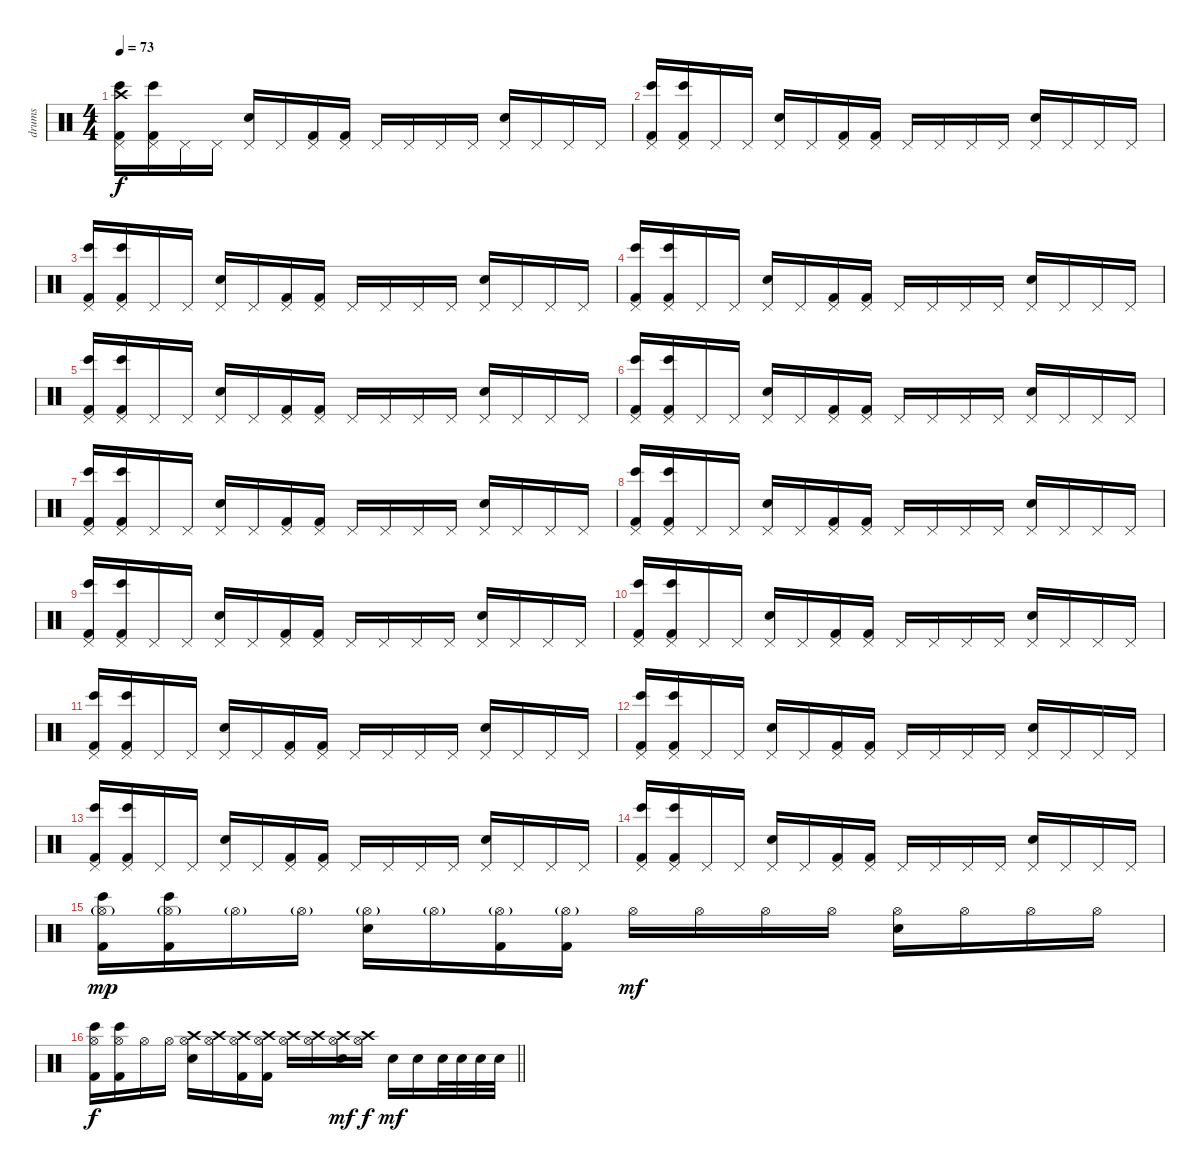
\track ("drums" "drums") {instrument percussion}
\staff {score}
\articulation defaults
\ts (4 4)
\tempo 73
\clef neutral
\ks c
("Kick (hit) 2" "Bongo High (hit)" "Pedal Hi-Hat (hit)" "Crash high (hit)").16{dy f} ("Kick (hit) 2" "Bongo High (hit)" "Pedal Hi-Hat (hit)").16 "Pedal Hi-Hat (hit)".16 "Pedal Hi-Hat (hit)".16 ("Electric Snare (hit)" "Pedal Hi-Hat (hit)").16 "Pedal Hi-Hat (hit)".16 ("Kick (hit) 2" "Pedal Hi-Hat (hit)").16 ("Kick (hit) 2" "Pedal Hi-Hat (hit)").16 "Pedal Hi-Hat (hit)".16 "Pedal Hi-Hat (hit)".16 "Pedal Hi-Hat (hit)".16 "Pedal Hi-Hat (hit)".16 ("Electric Snare (hit)" "Pedal Hi-Hat (hit)").16 "Pedal Hi-Hat (hit)".16 "Pedal Hi-Hat (hit)".16 "Pedal Hi-Hat (hit)".16 |
("Kick (hit) 2" "Bongo High (hit)" "Pedal Hi-Hat (hit)").16 ("Kick (hit) 2" "Bongo High (hit)" "Pedal Hi-Hat (hit)").16 "Pedal Hi-Hat (hit)".16 "Pedal Hi-Hat (hit)".16 ("Electric Snare (hit)" "Pedal Hi-Hat (hit)").16 "Pedal Hi-Hat (hit)".16 ("Kick (hit) 2" "Pedal Hi-Hat (hit)").16 ("Kick (hit) 2" "Pedal Hi-Hat (hit)").16 "Pedal Hi-Hat (hit)".16 "Pedal Hi-Hat (hit)".16 "Pedal Hi-Hat (hit)".16 "Pedal Hi-Hat (hit)".16 ("Electric Snare (hit)" "Pedal Hi-Hat (hit)").16 "Pedal Hi-Hat (hit)".16 "Pedal Hi-Hat (hit)".16 "Pedal Hi-Hat (hit)".16 |
("Kick (hit) 2" "Bongo High (hit)" "Pedal Hi-Hat (hit)").16 ("Kick (hit) 2" "Bongo High (hit)" "Pedal Hi-Hat (hit)").16 "Pedal Hi-Hat (hit)".16 "Pedal Hi-Hat (hit)".16 ("Electric Snare (hit)" "Pedal Hi-Hat (hit)").16 "Pedal Hi-Hat (hit)".16 ("Kick (hit) 2" "Pedal Hi-Hat (hit)").16 ("Kick (hit) 2" "Pedal Hi-Hat (hit)").16 "Pedal Hi-Hat (hit)".16 "Pedal Hi-Hat (hit)".16 "Pedal Hi-Hat (hit)".16 "Pedal Hi-Hat (hit)".16 ("Electric Snare (hit)" "Pedal Hi-Hat (hit)").16 "Pedal Hi-Hat (hit)".16 "Pedal Hi-Hat (hit)".16 "Pedal Hi-Hat (hit)".16 |
("Kick (hit) 2" "Bongo High (hit)" "Pedal Hi-Hat (hit)").16 ("Kick (hit) 2" "Bongo High (hit)" "Pedal Hi-Hat (hit)").16 "Pedal Hi-Hat (hit)".16 "Pedal Hi-Hat (hit)".16 ("Electric Snare (hit)" "Pedal Hi-Hat (hit)").16 "Pedal Hi-Hat (hit)".16 ("Kick (hit) 2" "Pedal Hi-Hat (hit)").16 ("Kick (hit) 2" "Pedal Hi-Hat (hit)").16 "Pedal Hi-Hat (hit)".16 "Pedal Hi-Hat (hit)".16 "Pedal Hi-Hat (hit)".16 "Pedal Hi-Hat (hit)".16 ("Electric Snare (hit)" "Pedal Hi-Hat (hit)").16 "Pedal Hi-Hat (hit)".16 "Pedal Hi-Hat (hit)".16 "Pedal Hi-Hat (hit)".16 |
("Kick (hit) 2" "Bongo High (hit)" "Pedal Hi-Hat (hit)").16 ("Kick (hit) 2" "Bongo High (hit)" "Pedal Hi-Hat (hit)").16 "Pedal Hi-Hat (hit)".16 "Pedal Hi-Hat (hit)".16 ("Electric Snare (hit)" "Pedal Hi-Hat (hit)").16 "Pedal Hi-Hat (hit)".16 ("Kick (hit) 2" "Pedal Hi-Hat (hit)").16 ("Kick (hit) 2" "Pedal Hi-Hat (hit)").16 "Pedal Hi-Hat (hit)".16 "Pedal Hi-Hat (hit)".16 "Pedal Hi-Hat (hit)".16 "Pedal Hi-Hat (hit)".16 ("Electric Snare (hit)" "Pedal Hi-Hat (hit)").16 "Pedal Hi-Hat (hit)".16 "Pedal Hi-Hat (hit)".16 "Pedal Hi-Hat (hit)".16 |
("Kick (hit) 2" "Bongo High (hit)" "Pedal Hi-Hat (hit)").16 ("Kick (hit) 2" "Bongo High (hit)" "Pedal Hi-Hat (hit)").16 "Pedal Hi-Hat (hit)".16 "Pedal Hi-Hat (hit)".16 ("Electric Snare (hit)" "Pedal Hi-Hat (hit)").16 "Pedal Hi-Hat (hit)".16 ("Kick (hit) 2" "Pedal Hi-Hat (hit)").16 ("Kick (hit) 2" "Pedal Hi-Hat (hit)").16 "Pedal Hi-Hat (hit)".16 "Pedal Hi-Hat (hit)".16 "Pedal Hi-Hat (hit)".16 "Pedal Hi-Hat (hit)".16 ("Electric Snare (hit)" "Pedal Hi-Hat (hit)").16 "Pedal Hi-Hat (hit)".16 "Pedal Hi-Hat (hit)".16 "Pedal Hi-Hat (hit)".16 |
("Kick (hit) 2" "Bongo High (hit)" "Pedal Hi-Hat (hit)").16 ("Kick (hit) 2" "Bongo High (hit)" "Pedal Hi-Hat (hit)").16 "Pedal Hi-Hat (hit)".16 "Pedal Hi-Hat (hit)".16 ("Electric Snare (hit)" "Pedal Hi-Hat (hit)").16 "Pedal Hi-Hat (hit)".16 ("Kick (hit) 2" "Pedal Hi-Hat (hit)").16 ("Kick (hit) 2" "Pedal Hi-Hat (hit)").16 "Pedal Hi-Hat (hit)".16 "Pedal Hi-Hat (hit)".16 "Pedal Hi-Hat (hit)".16 "Pedal Hi-Hat (hit)".16 ("Electric Snare (hit)" "Pedal Hi-Hat (hit)").16 "Pedal Hi-Hat (hit)".16 "Pedal Hi-Hat (hit)".16 "Pedal Hi-Hat (hit)".16 |
("Kick (hit) 2" "Bongo High (hit)" "Pedal Hi-Hat (hit)").16 ("Kick (hit) 2" "Bongo High (hit)" "Pedal Hi-Hat (hit)").16 "Pedal Hi-Hat (hit)".16 "Pedal Hi-Hat (hit)".16 ("Electric Snare (hit)" "Pedal Hi-Hat (hit)").16 "Pedal Hi-Hat (hit)".16 ("Kick (hit) 2" "Pedal Hi-Hat (hit)").16 ("Kick (hit) 2" "Pedal Hi-Hat (hit)").16 "Pedal Hi-Hat (hit)".16 "Pedal Hi-Hat (hit)".16 "Pedal Hi-Hat (hit)".16 "Pedal Hi-Hat (hit)".16 ("Electric Snare (hit)" "Pedal Hi-Hat (hit)").16 "Pedal Hi-Hat (hit)".16 "Pedal Hi-Hat (hit)".16 "Pedal Hi-Hat (hit)".16 |
("Kick (hit) 2" "Bongo High (hit)" "Pedal Hi-Hat (hit)").16 ("Kick (hit) 2" "Bongo High (hit)" "Pedal Hi-Hat (hit)").16 "Pedal Hi-Hat (hit)".16 "Pedal Hi-Hat (hit)".16 ("Electric Snare (hit)" "Pedal Hi-Hat (hit)").16 "Pedal Hi-Hat (hit)".16 ("Kick (hit) 2" "Pedal Hi-Hat (hit)").16 ("Kick (hit) 2" "Pedal Hi-Hat (hit)").16 "Pedal Hi-Hat (hit)".16 "Pedal Hi-Hat (hit)".16 "Pedal Hi-Hat (hit)".16 "Pedal Hi-Hat (hit)".16 ("Electric Snare (hit)" "Pedal Hi-Hat (hit)").16 "Pedal Hi-Hat (hit)".16 "Pedal Hi-Hat (hit)".16 "Pedal Hi-Hat (hit)".16 |
("Kick (hit) 2" "Bongo High (hit)" "Pedal Hi-Hat (hit)").16 ("Kick (hit) 2" "Bongo High (hit)" "Pedal Hi-Hat (hit)").16 "Pedal Hi-Hat (hit)".16 "Pedal Hi-Hat (hit)".16 ("Electric Snare (hit)" "Pedal Hi-Hat (hit)").16 "Pedal Hi-Hat (hit)".16 ("Kick (hit) 2" "Pedal Hi-Hat (hit)").16 ("Kick (hit) 2" "Pedal Hi-Hat (hit)").16 "Pedal Hi-Hat (hit)".16 "Pedal Hi-Hat (hit)".16 "Pedal Hi-Hat (hit)".16 "Pedal Hi-Hat (hit)".16 ("Electric Snare (hit)" "Pedal Hi-Hat (hit)").16 "Pedal Hi-Hat (hit)".16 "Pedal Hi-Hat (hit)".16 "Pedal Hi-Hat (hit)".16 |
("Kick (hit) 2" "Bongo High (hit)" "Pedal Hi-Hat (hit)").16 ("Kick (hit) 2" "Bongo High (hit)" "Pedal Hi-Hat (hit)").16 "Pedal Hi-Hat (hit)".16 "Pedal Hi-Hat (hit)".16 ("Electric Snare (hit)" "Pedal Hi-Hat (hit)").16 "Pedal Hi-Hat (hit)".16 ("Kick (hit) 2" "Pedal Hi-Hat (hit)").16 ("Kick (hit) 2" "Pedal Hi-Hat (hit)").16 "Pedal Hi-Hat (hit)".16 "Pedal Hi-Hat (hit)".16 "Pedal Hi-Hat (hit)".16 "Pedal Hi-Hat (hit)".16 ("Electric Snare (hit)" "Pedal Hi-Hat (hit)").16 "Pedal Hi-Hat (hit)".16 "Pedal Hi-Hat (hit)".16 "Pedal Hi-Hat (hit)".16 |
("Kick (hit) 2" "Bongo High (hit)" "Pedal Hi-Hat (hit)").16 ("Kick (hit) 2" "Bongo High (hit)" "Pedal Hi-Hat (hit)").16 "Pedal Hi-Hat (hit)".16 "Pedal Hi-Hat (hit)".16 ("Electric Snare (hit)" "Pedal Hi-Hat (hit)").16 "Pedal Hi-Hat (hit)".16 ("Kick (hit) 2" "Pedal Hi-Hat (hit)").16 ("Kick (hit) 2" "Pedal Hi-Hat (hit)").16 "Pedal Hi-Hat (hit)".16 "Pedal Hi-Hat (hit)".16 "Pedal Hi-Hat (hit)".16 "Pedal Hi-Hat (hit)".16 ("Electric Snare (hit)" "Pedal Hi-Hat (hit)").16 "Pedal Hi-Hat (hit)".16 "Pedal Hi-Hat (hit)".16 "Pedal Hi-Hat (hit)".16 |
("Kick (hit) 2" "Bongo High (hit)" "Pedal Hi-Hat (hit)").16 ("Kick (hit) 2" "Bongo High (hit)" "Pedal Hi-Hat (hit)").16 "Pedal Hi-Hat (hit)".16 "Pedal Hi-Hat (hit)".16 ("Electric Snare (hit)" "Pedal Hi-Hat (hit)").16 "Pedal Hi-Hat (hit)".16 ("Kick (hit) 2" "Pedal Hi-Hat (hit)").16 ("Kick (hit) 2" "Pedal Hi-Hat (hit)").16 "Pedal Hi-Hat (hit)".16 "Pedal Hi-Hat (hit)".16 "Pedal Hi-Hat (hit)".16 "Pedal Hi-Hat (hit)".16 ("Electric Snare (hit)" "Pedal Hi-Hat (hit)").16 "Pedal Hi-Hat (hit)".16 "Pedal Hi-Hat (hit)".16 "Pedal Hi-Hat (hit)".16 |
("Kick (hit) 2" "Bongo High (hit)" "Pedal Hi-Hat (hit)").16 ("Kick (hit) 2" "Bongo High (hit)" "Pedal Hi-Hat (hit)").16 "Pedal Hi-Hat (hit)".16 "Pedal Hi-Hat (hit)".16 ("Electric Snare (hit)" "Pedal Hi-Hat (hit)").16 "Pedal Hi-Hat (hit)".16 ("Kick (hit) 2" "Pedal Hi-Hat (hit)").16 ("Kick (hit) 2" "Pedal Hi-Hat (hit)").16 "Pedal Hi-Hat (hit)".16 "Pedal Hi-Hat (hit)".16 "Pedal Hi-Hat (hit)".16 "Pedal Hi-Hat (hit)".16 ("Electric Snare (hit)" "Pedal Hi-Hat (hit)").16 "Pedal Hi-Hat (hit)".16 "Pedal Hi-Hat (hit)".16 "Pedal Hi-Hat (hit)".16 |
("Kick (hit) 2" "Bongo High (hit)" "Hi-Hat (open)"{g}).16{dy mp} ("Kick (hit) 2" "Bongo High (hit)" "Hi-Hat (open)"{g}).16 "Hi-Hat (open)"{g}.16 "Hi-Hat (open)"{g}.16 ("Electric Snare (hit)" "Hi-Hat (open)"{g}).16 "Hi-Hat (open)"{g}.16 ("Kick (hit) 2" "Hi-Hat (open)"{g}).16 ("Kick (hit) 2" "Hi-Hat (open)"{g}).16 "Hi-Hat (open)".16{dy mf} "Hi-Hat (open)".16 "Hi-Hat (open)".16 "Hi-Hat (open)".16 ("Electric Snare (hit)" "Hi-Hat (open)").16 "Hi-Hat (open)".16 "Hi-Hat (open)".16 "Hi-Hat (open)".16 |
\barLineRight lightlight
("Kick (hit) 2" "Bongo High (hit)" "Hi-Hat (open)").16{dy f} ("Kick (hit) 2" "Bongo High (hit)" "Hi-Hat (open)").16 "Hi-Hat (open)".16 "Hi-Hat (open)".16 ("Electric Snare (hit)" "Hi-Hat (open)" "Crash high (hit)").16 ("Hi-Hat (open)" "Crash high (hit)").16 ("Kick (hit) 2" "Hi-Hat (open)" "Crash high (hit)").16 ("Kick (hit) 2" "Hi-Hat (open)" "Crash high (hit)").16 ("Hi-Hat (open)" "Crash high (hit)").16 ("Hi-Hat (open)" "Crash high (hit)").16 ("Electric Snare (hit)" "Hi-Hat (open)" "Crash high (hit)").16{dy mf} ("Hi-Hat (open)" "Crash high (hit)").16{dy f} "Electric Snare (hit)".16{dy mf} "Electric Snare (hit)".16 "Electric Snare (hit)".32 "Electric Snare (hit)".32 "Electric Snare (hit)".32 "Electric Snare (hit)".32
